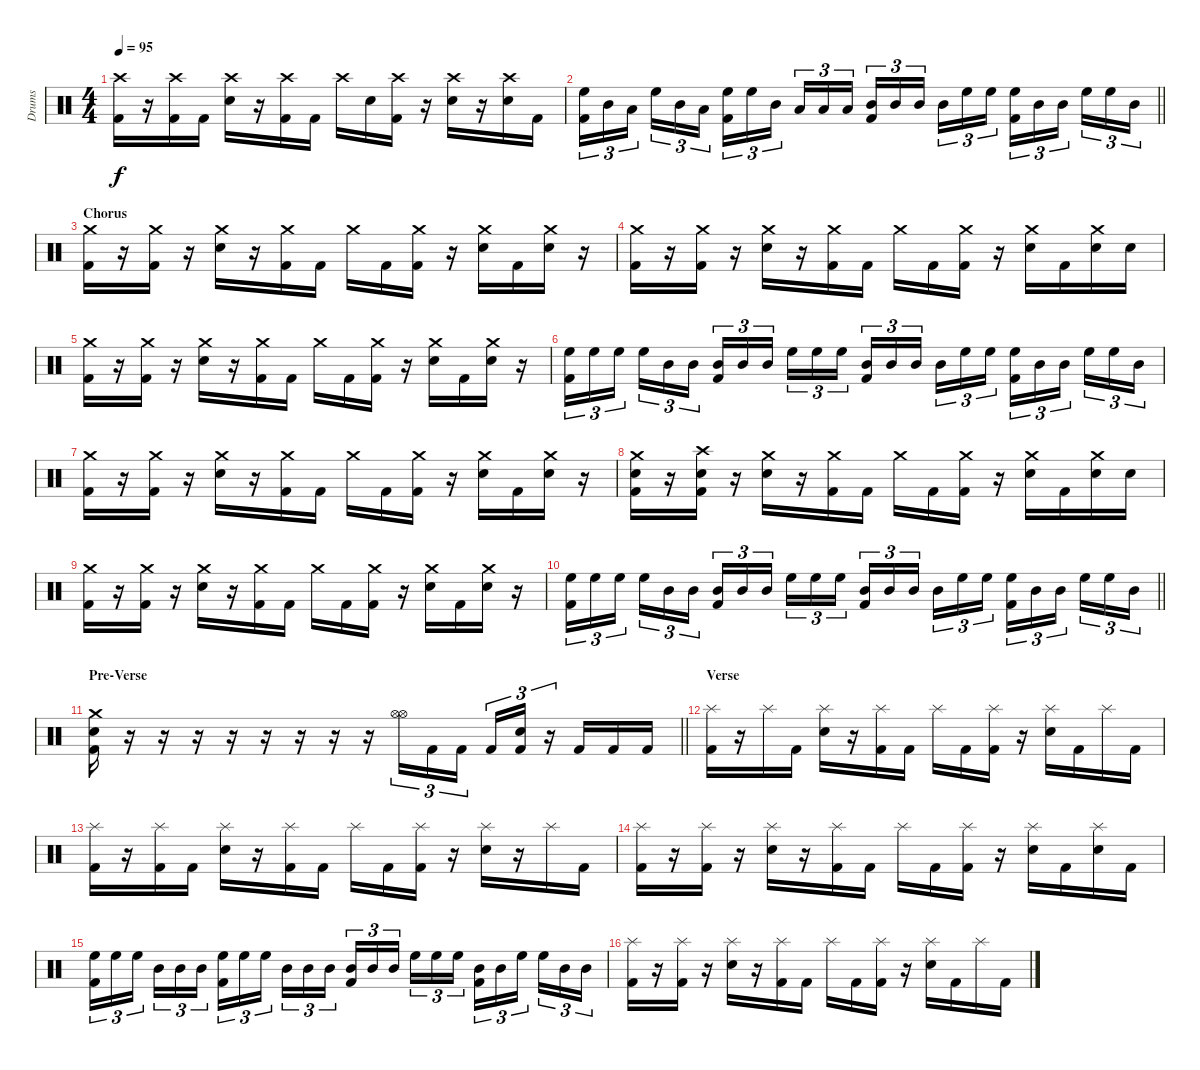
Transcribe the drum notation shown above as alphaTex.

\track ("Drums" "Drums") {instrument percussion}
\staff {score}
\articulation defaults
\ts (4 4)
\tempo 95
\clef neutral
\ks c
("Crash high (hit)" "Kick (hit) 2").16{dy f} r.16 ("Crash high (hit)" "Kick (hit) 2").16 "Kick (hit) 2".16 ("Crash high (hit)" "Electric Snare (hit)").16 r.16 ("Crash high (hit)" "Kick (hit) 2").16 "Kick (hit) 2".16 "Crash high (hit)".16 "Electric Snare (hit)".16 ("Crash high (hit)" "Kick (hit) 2").16 r.16 ("Crash high (hit)" "Electric Snare (hit)").16 r.16 ("Crash high (hit)" "Electric Snare (hit)").16 "Kick (hit) 2".16 |
\barLineRight lightlight
("High Floor Tom (hit)" "Kick (hit) 2").16{tu (3 2)} "Mid Tom (hit)".16{tu (3 2)} "Low Tom (hit)".16{tu (3 2) beam splitsecondary} "High Floor Tom (hit)".16{tu (3 2)} "Mid Tom (hit)".16{tu (3 2)} "Low Tom (hit)".16{tu (3 2)} ("High Floor Tom (hit)" "Kick (hit) 2").16{tu (3 2)} "High Floor Tom (hit)".16{tu (3 2)} "Mid Tom (hit)".16{tu (3 2) beam splitsecondary} "Low Tom (hit)".16{tu (3 2)} "Low Tom (hit)".16{tu (3 2)} "Low Tom (hit)".16{tu (3 2)} ("Mid Tom (hit)" "Kick (hit) 2").16{tu (3 2)} "Mid Tom (hit)".16{tu (3 2)} "Mid Tom (hit)".16{tu (3 2) beam splitsecondary} "Mid Tom (hit)".16{tu (3 2)} "High Floor Tom (hit)".16{tu (3 2)} "High Floor Tom (hit)".16{tu (3 2)} ("High Floor Tom (hit)" "Kick (hit) 2").16{tu (3 2)} "Mid Tom (hit)".16{tu (3 2)} "Mid Tom (hit)".16{tu (3 2) beam splitsecondary} "High Floor Tom (hit)".16{tu (3 2)} "High Floor Tom (hit)".16{tu (3 2)} "Mid Tom (hit)".16{tu (3 2)} |
\section ("" "Chorus")
("Crash medium (hit)" "Kick (hit) 2").16 r.16 ("Crash medium (hit)" "Kick (hit) 2").16 r.16 ("Crash medium (hit)" "Electric Snare (hit)").16 r.16 ("Crash medium (hit)" "Kick (hit) 2").16 "Kick (hit) 2".16 "Crash medium (hit)".16 "Kick (hit) 2".16 ("Crash medium (hit)" "Kick (hit) 2").16 r.16 ("Crash medium (hit)" "Electric Snare (hit)").16 "Kick (hit) 2".16 ("Crash medium (hit)" "Electric Snare (hit)").16 r.16 |
("Crash medium (hit)" "Kick (hit) 2").16 r.16 ("Crash medium (hit)" "Kick (hit) 2").16 r.16 ("Crash medium (hit)" "Electric Snare (hit)").16 r.16 ("Crash medium (hit)" "Kick (hit) 2").16 "Kick (hit) 2".16 "Crash medium (hit)".16 "Kick (hit) 2".16 ("Crash medium (hit)" "Kick (hit) 2").16 r.16 ("Crash medium (hit)" "Electric Snare (hit)").16 "Kick (hit) 2".16 ("Crash medium (hit)" "Electric Snare (hit)").16 "Electric Snare (hit)".16 |
("Crash medium (hit)" "Kick (hit) 2").16 r.16 ("Crash medium (hit)" "Kick (hit) 2").16 r.16 ("Crash medium (hit)" "Electric Snare (hit)").16 r.16 ("Crash medium (hit)" "Kick (hit) 2").16 "Kick (hit) 2".16 "Crash medium (hit)".16 "Kick (hit) 2".16 ("Crash medium (hit)" "Kick (hit) 2").16 r.16 ("Crash medium (hit)" "Electric Snare (hit)").16 "Kick (hit) 2".16 ("Crash medium (hit)" "Electric Snare (hit)").16 r.16 |
("High Floor Tom (hit)" "Kick (hit) 2").16{tu (3 2)} "High Floor Tom (hit)".16{tu (3 2)} "High Floor Tom (hit)".16{tu (3 2) beam splitsecondary} "High Floor Tom (hit)".16{tu (3 2)} "Mid Tom (hit)".16{tu (3 2)} "Mid Tom (hit)".16{tu (3 2)} ("Mid Tom (hit)" "Kick (hit) 2").16{tu (3 2)} "Mid Tom (hit)".16{tu (3 2)} "Mid Tom (hit)".16{tu (3 2) beam splitsecondary} "High Floor Tom (hit)".16{tu (3 2)} "High Floor Tom (hit)".16{tu (3 2)} "High Floor Tom (hit)".16{tu (3 2)} ("Mid Tom (hit)" "Kick (hit) 2").16{tu (3 2)} "Mid Tom (hit)".16{tu (3 2)} "Mid Tom (hit)".16{tu (3 2) beam splitsecondary} "Mid Tom (hit)".16{tu (3 2)} "High Floor Tom (hit)".16{tu (3 2)} "High Floor Tom (hit)".16{tu (3 2)} ("High Floor Tom (hit)" "Kick (hit) 2").16{tu (3 2)} "Mid Tom (hit)".16{tu (3 2)} "Mid Tom (hit)".16{tu (3 2) beam splitsecondary} "High Floor Tom (hit)".16{tu (3 2)} "High Floor Tom (hit)".16{tu (3 2)} "Mid Tom (hit)".16{tu (3 2)} |
("Crash medium (hit)" "Kick (hit) 2").16 r.16 ("Crash medium (hit)" "Kick (hit) 2").16 r.16 ("Crash medium (hit)" "Electric Snare (hit)").16 r.16 ("Crash medium (hit)" "Kick (hit) 2").16 "Kick (hit) 2".16 "Crash medium (hit)".16 "Kick (hit) 2".16 ("Crash medium (hit)" "Kick (hit) 2").16 r.16 ("Crash medium (hit)" "Electric Snare (hit)").16 "Kick (hit) 2".16 ("Crash medium (hit)" "Electric Snare (hit)").16 r.16 |
("Crash medium (hit)" "Electric Snare (hit)" "Kick (hit) 2").16 r.16 ("Crash high (hit)" "Electric Snare (hit)" "Kick (hit) 2").16 r.16 ("Crash medium (hit)" "Electric Snare (hit)").16 r.16 ("Crash medium (hit)" "Kick (hit) 2").16 "Kick (hit) 2".16 "Crash medium (hit)".16 "Kick (hit) 2".16 ("Crash medium (hit)" "Kick (hit) 2").16 r.16 ("Crash medium (hit)" "Electric Snare (hit)").16 "Kick (hit) 2".16 ("Crash medium (hit)" "Electric Snare (hit)").16 "Electric Snare (hit)".16 |
("Crash medium (hit)" "Kick (hit) 2").16 r.16 ("Crash medium (hit)" "Kick (hit) 2").16 r.16 ("Crash medium (hit)" "Electric Snare (hit)").16 r.16 ("Crash medium (hit)" "Kick (hit) 2").16 "Kick (hit) 2".16 "Crash medium (hit)".16 "Kick (hit) 2".16 ("Crash medium (hit)" "Kick (hit) 2").16 r.16 ("Crash medium (hit)" "Electric Snare (hit)").16 "Kick (hit) 2".16 ("Crash medium (hit)" "Electric Snare (hit)").16 r.16 |
\barLineRight lightlight
("High Floor Tom (hit)" "Kick (hit) 2").16{tu (3 2)} "High Floor Tom (hit)".16{tu (3 2)} "High Floor Tom (hit)".16{tu (3 2) beam splitsecondary} "High Floor Tom (hit)".16{tu (3 2)} "Mid Tom (hit)".16{tu (3 2)} "Mid Tom (hit)".16{tu (3 2)} ("Mid Tom (hit)" "Kick (hit) 2").16{tu (3 2)} "Mid Tom (hit)".16{tu (3 2)} "Mid Tom (hit)".16{tu (3 2) beam splitsecondary} "High Floor Tom (hit)".16{tu (3 2)} "High Floor Tom (hit)".16{tu (3 2)} "High Floor Tom (hit)".16{tu (3 2)} ("Mid Tom (hit)" "Kick (hit) 2").16{tu (3 2)} "Mid Tom (hit)".16{tu (3 2)} "Mid Tom (hit)".16{tu (3 2) beam splitsecondary} "Mid Tom (hit)".16{tu (3 2)} "High Floor Tom (hit)".16{tu (3 2)} "High Floor Tom (hit)".16{tu (3 2)} ("High Floor Tom (hit)" "Kick (hit) 2").16{tu (3 2)} "Mid Tom (hit)".16{tu (3 2)} "Mid Tom (hit)".16{tu (3 2) beam splitsecondary} "High Floor Tom (hit)".16{tu (3 2)} "High Floor Tom (hit)".16{tu (3 2)} "Mid Tom (hit)".16{tu (3 2)} |
\section ("" "Pre-Verse")
\barLineRight lightlight
("Crash medium (hit)" "Electric Snare (hit)" "Kick (hit) 2").16 r.16 r.16 r.16 r.16 r.16 r.16 r.16 r.16 ("Hi-Hat (open)" "Hi-Hat (open)").16{tu (3 2)} "Kick (hit) 2".16{tu (3 2)} "Kick (hit) 2".16{tu (3 2) beam splitsecondary} "Kick (hit) 2".16{tu (3 2)} ("Electric Snare (hit)" "Kick (hit) 2").16{tu (3 2)} r.16{tu (3 2)} "Kick (hit) 2".16 "Kick (hit) 2".16 "Kick (hit) 2".16 |
\section ("" "Verse")
("Splash (hit)" "Kick (hit) 2").16 r.16 "Splash (hit)".16 "Kick (hit) 2".16 ("Splash (hit)" "Electric Snare (hit)").16 r.16 ("Splash (hit)" "Kick (hit) 2").16 "Kick (hit) 2".16 "Splash (hit)".16 "Kick (hit) 2".16 ("Splash (hit)" "Kick (hit) 2").16 r.16 ("Splash (hit)" "Electric Snare (hit)").16 "Kick (hit) 2".16 "Splash (hit)".16 "Kick (hit) 2".16 |
("Splash (hit)" "Kick (hit) 2").16 r.16 ("Splash (hit)" "Kick (hit) 2").16 "Kick (hit) 2".16 ("Splash (hit)" "Electric Snare (hit)").16 r.16 ("Splash (hit)" "Kick (hit) 2").16 "Kick (hit) 2".16 "Splash (hit)".16 "Kick (hit) 2".16 ("Splash (hit)" "Kick (hit) 2").16 r.16 ("Splash (hit)" "Electric Snare (hit)").16 r.16 "Splash (hit)".16 "Kick (hit) 2".16 |
("Splash (hit)" "Kick (hit) 2").16 r.16 ("Splash (hit)" "Kick (hit) 2").16 r.16 ("Splash (hit)" "Electric Snare (hit)").16 r.16 ("Splash (hit)" "Kick (hit) 2").16 "Kick (hit) 2".16 "Splash (hit)".16 "Kick (hit) 2".16 ("Splash (hit)" "Kick (hit) 2").16 r.16 ("Splash (hit)" "Electric Snare (hit)").16 "Kick (hit) 2".16 ("Splash (hit)" "Electric Snare (hit)").16 "Kick (hit) 2".16 |
("High Floor Tom (hit)" "Kick (hit) 2").16{tu (3 2)} "High Floor Tom (hit)".16{tu (3 2)} "High Floor Tom (hit)".16{tu (3 2) beam splitsecondary} "Mid Tom (hit)".16{tu (3 2)} "Mid Tom (hit)".16{tu (3 2)} "Mid Tom (hit)".16{tu (3 2)} ("High Floor Tom (hit)" "Kick (hit) 2").16{tu (3 2)} "High Floor Tom (hit)".16{tu (3 2)} "High Floor Tom (hit)".16{tu (3 2) beam splitsecondary} "Mid Tom (hit)".16{tu (3 2)} "Mid Tom (hit)".16{tu (3 2)} "Mid Tom (hit)".16{tu (3 2)} ("Mid Tom (hit)" "Kick (hit) 2").16{tu (3 2)} "Mid Tom (hit)".16{tu (3 2)} "Mid Tom (hit)".16{tu (3 2) beam splitsecondary} "High Floor Tom (hit)".16{tu (3 2)} "High Floor Tom (hit)".16{tu (3 2)} "High Floor Tom (hit)".16{tu (3 2)} ("Mid Tom (hit)" "Kick (hit) 2").16{tu (3 2)} "Mid Tom (hit)".16{tu (3 2)} "High Floor Tom (hit)".16{tu (3 2) beam splitsecondary} "High Floor Tom (hit)".16{tu (3 2)} "Mid Tom (hit)".16{tu (3 2)} "Mid Tom (hit)".16{tu (3 2)} |
("Splash (hit)" "Kick (hit) 2").16 r.16 ("Splash (hit)" "Kick (hit) 2").16 r.16 ("Splash (hit)" "Electric Snare (hit)").16 r.16 ("Splash (hit)" "Kick (hit) 2").16 "Kick (hit) 2".16 "Splash (hit)".16 "Kick (hit) 2".16 ("Splash (hit)" "Kick (hit) 2").16 r.16 ("Splash (hit)" "Electric Snare (hit)").16 "Kick (hit) 2".16 "Splash (hit)".16 "Kick (hit) 2".16
